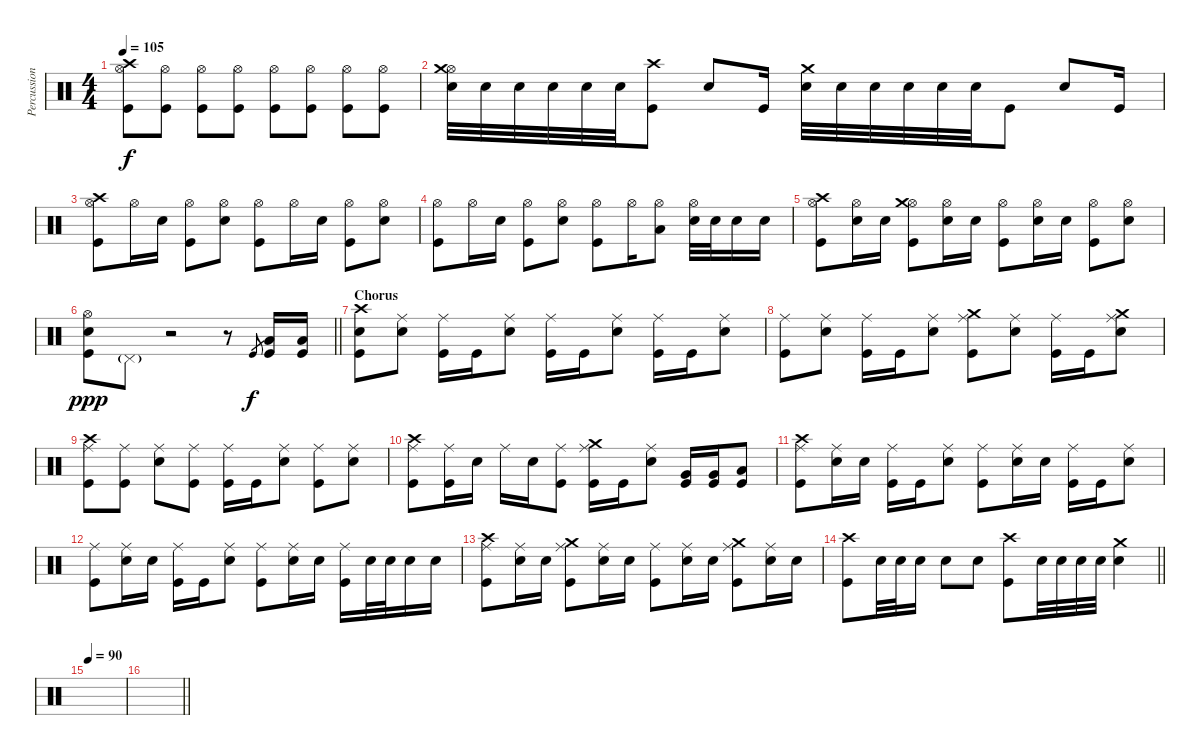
\track ("Percussion" "Percussion") {instrument percussion}
\staff {score}
\articulation defaults
\ts (4 4)
\tempo 105
\clef neutral
\ks c
("Hi-Hat (open)" "Kick (hit)" "Crash high (hit)").8{dy f} ("Hi-Hat (open)" "Kick (hit)").8 ("Hi-Hat (open)" "Kick (hit)").8 ("Hi-Hat (open)" "Kick (hit)").8 ("Hi-Hat (open)" "Kick (hit)").8 ("Hi-Hat (open)" "Kick (hit)").8 ("Hi-Hat (open)" "Kick (hit)").8 ("Hi-Hat (open)" "Kick (hit)").8 |
("Hi-Hat (open)" "Electric Snare (hit)" "Crash medium (hit)").32 "Electric Snare (hit)".32 "Electric Snare (hit)".32 "Electric Snare (hit)".32 "Electric Snare (hit)".32 "Electric Snare (hit)".32 ("Kick (hit)" "Crash high (hit)").8 "Electric Snare (hit)".8 "Kick (hit)".16 ("Electric Snare (hit)" "Crash medium (hit)").32 "Electric Snare (hit)".32 "Electric Snare (hit)".32 "Electric Snare (hit)".32 "Electric Snare (hit)".32 "Electric Snare (hit)".32 "Kick (hit)".8 "Electric Snare (hit)".8 "Kick (hit)".16 |
("Hi-Hat (open)" "Kick (hit)" "Crash high (hit)").8 "Hi-Hat (open)".16 "Electric Snare (hit)".16 ("Hi-Hat (open)" "Kick (hit)").8 ("Hi-Hat (open)" "Electric Snare (hit)").8 ("Hi-Hat (open)" "Kick (hit)").8 "Hi-Hat (open)".16 "Electric Snare (hit)".16 ("Hi-Hat (open)" "Kick (hit)").8 ("Hi-Hat (open)" "Electric Snare (hit)").8 |
("Hi-Hat (open)" "Kick (hit)").8 "Hi-Hat (open)".16 "Electric Snare (hit)".16 ("Hi-Hat (open)" "Kick (hit)").8 ("Hi-Hat (open)" "Electric Snare (hit)").8 ("Hi-Hat (open)" "Kick (hit)").8 "Hi-Hat (open)".16 ("Hi-Hat (open)" "Low Floor Tom (hit)").8 ("Hi-Hat (open)" "Electric Snare (hit)").32 "Electric Snare (hit)".32 "Electric Snare (hit)".16 "Electric Snare (hit)".16 |
("Hi-Hat (open)" "Kick (hit)" "Crash high (hit)").8 ("Hi-Hat (open)" "Electric Snare (hit)").16 "Electric Snare (hit)".16 ("Hi-Hat (open)" "Kick (hit)" "Crash medium (hit)").8 ("Hi-Hat (open)" "Electric Snare (hit)").16 "Electric Snare (hit)".16 ("Hi-Hat (open)" "Kick (hit)").8 ("Hi-Hat (open)" "Electric Snare (hit)").16 "Electric Snare (hit)".16 ("Hi-Hat (open)" "Kick (hit)").8 ("Hi-Hat (open)" "Electric Snare (hit)").8 |
\barLineRight lightlight
("Hi-Hat (open)" "Electric Snare (hit)" "Kick (hit)").8{dy ppp} "Pedal Hi-Hat (hit)"{g}.8 r.2 r.8 "Kick (hit)".8{gr dy f} ("Kick (hit)" "Low Floor Tom (hit)").16 ("Kick (hit)" "Low Floor Tom (hit)").16 |
\section ("" "Chorus")
("Electric Snare (hit)" "Kick (hit)" "Crash high (hit)").8 ("Electric Snare (hit)" "Ride (middle)").8 ("Kick (hit)" "Ride (middle)").16 "Kick (hit)".16 ("Electric Snare (hit)" "Ride (middle)").8 ("Kick (hit)" "Ride (middle)").16 "Kick (hit)".16 ("Electric Snare (hit)" "Ride (middle)").8 ("Kick (hit)" "Ride (middle)").16 "Kick (hit)".16 ("Electric Snare (hit)" "Ride (middle)").8 |
("Kick (hit)" "Ride (middle)").8 ("Electric Snare (hit)" "Ride (middle)").8 ("Kick (hit)" "Ride (middle)").16 "Kick (hit)".16 ("Electric Snare (hit)" "Ride (middle)").8 ("Kick (hit)" "Ride (middle)" "Crash medium (hit)").8 ("Electric Snare (hit)" "Ride (middle)").8 ("Kick (hit)" "Ride (middle)").16 "Kick (hit)".16 ("Electric Snare (hit)" "Ride (middle)" "Crash medium (hit)").8 |
("Kick (hit)" "Ride (middle)" "Crash high (hit)").8 ("Kick (hit)" "Ride (middle)").8 ("Electric Snare (hit)" "Ride (middle)").8 ("Kick (hit)" "Ride (middle)").8 ("Kick (hit)" "Ride (middle)").16 "Kick (hit)".16 ("Electric Snare (hit)" "Ride (middle)").8 ("Kick (hit)" "Ride (middle)").8 ("Electric Snare (hit)" "Ride (middle)").8 |
("Kick (hit)" "Ride (middle)" "Crash high (hit)").8 ("Kick (hit)" "Ride (middle)").16 "Electric Snare (hit)".16 "Ride (middle)".16 "Electric Snare (hit)".16 ("Kick (hit)" "Ride (middle)").8 ("Kick (hit)" "Ride (middle)" "Crash medium (hit)").16 "Kick (hit)".16 ("Electric Snare (hit)" "Ride (middle)").8 ("Kick (hit)" "Very Low Tom (hit)").16 ("Kick (hit)" "Very Low Tom (hit)").16 ("Kick (hit)" "Low Floor Tom (hit)").8 |
("Kick (hit)" "Ride (middle)" "Crash high (hit)").8 ("Electric Snare (hit)" "Ride (middle)").16 "Electric Snare (hit)".16 ("Kick (hit)" "Ride (middle)").16 "Kick (hit)".16 ("Electric Snare (hit)" "Ride (middle)").8 ("Kick (hit)" "Ride (middle)").8 ("Electric Snare (hit)" "Ride (middle)").16 "Electric Snare (hit)".16 ("Kick (hit)" "Ride (middle)").16 "Kick (hit)".16 ("Electric Snare (hit)" "Ride (middle)").8 |
("Kick (hit)" "Ride (middle)").8 ("Electric Snare (hit)" "Ride (middle)").16 "Electric Snare (hit)".16 ("Kick (hit)" "Ride (middle)").16 "Kick (hit)".16 ("Electric Snare (hit)" "Ride (middle)").8 ("Kick (hit)" "Ride (middle)").8 ("Electric Snare (hit)" "Ride (middle)").16 "Electric Snare (hit)".16 ("Kick (hit)" "Ride (middle)").16 "Electric Snare (hit)".32 "Electric Snare (hit)".32 "Electric Snare (hit)".16 "Electric Snare (hit)".16 |
("Kick (hit)" "Ride (middle)" "Crash high (hit)").8 ("Electric Snare (hit)" "Ride (middle)").16 "Electric Snare (hit)".16 ("Kick (hit)" "Ride (middle)" "Crash medium (hit)").8 ("Electric Snare (hit)" "Ride (middle)").16 "Electric Snare (hit)".16 ("Kick (hit)" "Ride (middle)").8 ("Electric Snare (hit)" "Ride (middle)").16 "Electric Snare (hit)".16 ("Kick (hit)" "Ride (middle)" "Crash medium (hit)").8 ("Electric Snare (hit)" "Ride (middle)").16 "Electric Snare (hit)".16 |
\barLineRight lightlight
("Kick (hit)" "Crash high (hit)").8 "Electric Snare (hit)".32 "Electric Snare (hit)".32 "Electric Snare (hit)".16 "Electric Snare (hit)".8 "Electric Snare (hit)".8 ("Kick (hit)" "Crash high (hit)").8 "Electric Snare (hit)".32 "Electric Snare (hit)".32 "Electric Snare (hit)".32 "Electric Snare (hit)".32 ("Electric Snare (hit)" "Crash medium (hit)").4 |
\tempo 90
|
\barLineRight lightlight
